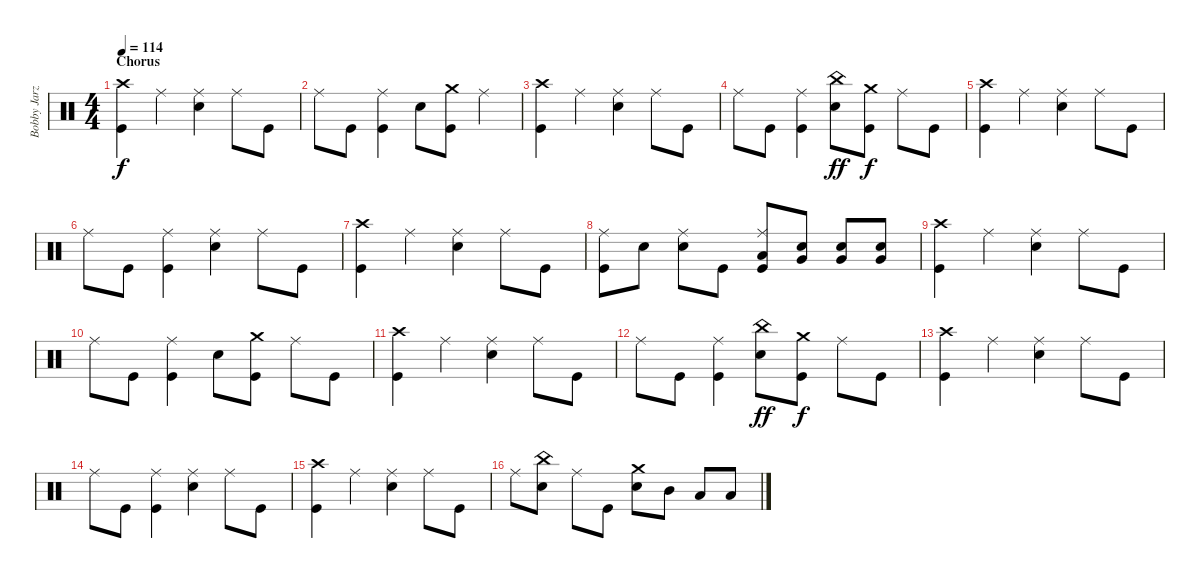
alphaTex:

\track ("Bobby Jarzombek" "Bobby Jarz") {instrument percussion}
\staff {score}
\articulation defaults
\ts (4 4)
\section ("" "Chorus")
\tempo 114
\clef neutral
\ks c
("Crash high (hit)" "Kick (hit)").4{dy f} "Ride (middle)".4 ("Ride (middle)" "Electric Snare (hit)").4 "Ride (middle)".8 "Kick (hit)".8 |
"Ride (middle)".8 "Kick (hit)".8 ("Ride (middle)" "Kick (hit)").4 "Electric Snare (hit)".8 ("Crash medium (hit)" "Kick (hit)").8 "Ride (middle)".4 |
("Crash high (hit)" "Kick (hit)").4 "Ride (middle)".4 ("Ride (middle)" "Electric Snare (hit)").4 "Ride (middle)".8 "Kick (hit)".8 |
"Ride (middle)".8 "Kick (hit)".8 ("Ride (middle)" "Kick (hit)").4 ("China (hit)" "Electric Snare (hit)").8{dy ff} ("Crash medium (hit)" "Kick (hit)").8{dy f} "Ride (middle)".8 "Kick (hit)".8 |
("Crash high (hit)" "Kick (hit)").4 "Ride (middle)".4 ("Ride (middle)" "Electric Snare (hit)").4 "Ride (middle)".8 "Kick (hit)".8 |
"Ride (middle)".8 "Kick (hit)".8 ("Ride (middle)" "Kick (hit)").4 ("Ride (middle)" "Electric Snare (hit)").4 "Ride (middle)".8 "Kick (hit)".8 |
("Crash high (hit)" "Kick (hit)").4 "Ride (middle)".4 ("Ride (middle)" "Electric Snare (hit)").4 "Ride (middle)".8 "Kick (hit)".8 |
("Ride (middle)" "Kick (hit)").8 "Electric Snare (hit)".8 ("Ride (middle)" "Electric Snare (hit)").8 "Kick (hit)".8 ("Ride (middle)" "Low Tom (hit)" "Kick (hit)").8 ("Very Low Tom (hit)" "Electric Snare (hit)").8 ("Very Low Tom (hit)" "Electric Snare (hit)").8 ("Very Low Tom (hit)" "Electric Snare (hit)").8 |
("Crash high (hit)" "Kick (hit)").4 "Ride (middle)".4 ("Ride (middle)" "Electric Snare (hit)").4 "Ride (middle)".8 "Kick (hit)".8 |
"Ride (middle)".8 "Kick (hit)".8 ("Ride (middle)" "Kick (hit)").4 "Electric Snare (hit)".8 ("Crash medium (hit)" "Kick (hit)").8 "Ride (middle)".8 "Kick (hit)".8 |
("Crash high (hit)" "Kick (hit)").4 "Ride (middle)".4 ("Ride (middle)" "Electric Snare (hit)").4 "Ride (middle)".8 "Kick (hit)".8 |
"Ride (middle)".8 "Kick (hit)".8 ("Ride (middle)" "Kick (hit)").4 ("China (hit)" "Electric Snare (hit)").8{dy ff} ("Crash medium (hit)" "Kick (hit)").8{dy f} "Ride (middle)".8 "Kick (hit)".8 |
("Crash high (hit)" "Kick (hit)").4 "Ride (middle)".4 ("Ride (middle)" "Electric Snare (hit)").4 "Ride (middle)".8 "Kick (hit)".8 |
"Ride (middle)".8 "Kick (hit)".8 ("Ride (middle)" "Kick (hit)").4 ("Ride (middle)" "Electric Snare (hit)").4 "Ride (middle)".8 "Kick (hit)".8 |
("Crash high (hit)" "Kick (hit)").4 "Ride (middle)".4 ("Ride (middle)" "Electric Snare (hit)").4 "Ride (middle)".8 "Kick (hit)".8 |
"Ride (middle)".8 ("China (hit)" "Electric Snare (hit)").8 "Ride (middle)".8 "Kick (hit)".8 ("Crash medium (hit)" "Electric Snare (hit)").8 "Mid Tom (hit)".8 "Low Tom (hit)".8 "Low Tom (hit)".8
